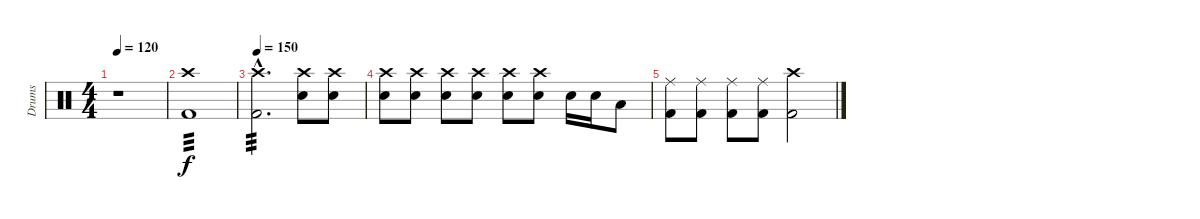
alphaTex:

\track ("Drums" "Drums") {instrument percussion}
\staff {score}
\articulation defaults
\ts (4 4)
\tempo 120
\clef neutral
\ks c
r.1{dy f} |
("Crash high (hit)" "Kick (hit) 2").1{tp 3} |
\tempo 150
("Crash high (hit)"{hac} "Kick (hit) 2"{hac}).2{d tp 3} ("Crash high (hit)" "Snare (hit) 2").8 ("Crash high (hit)" "Snare (hit) 2").8 |
("Crash high (hit)" "Snare (hit) 2").8 ("Crash high (hit)" "Snare (hit) 2").8 ("Crash high (hit)" "Snare (hit) 2").8 ("Crash high (hit)" "Snare (hit) 2").8 ("Crash high (hit)" "Snare (hit) 2").8 ("Crash high (hit)" "Snare (hit) 2").8 "Snare (hit) 2".16 "Snare (hit) 2".16 "Low Tom (hit)".8 |
("Ride (middle)" "Kick (hit) 2").8 ("Ride (middle)" "Kick (hit) 2").8 ("Ride (middle)" "Kick (hit) 2").8 ("Ride (middle)" "Kick (hit) 2").8 ("Crash high (hit)" "Kick (hit) 2").2
